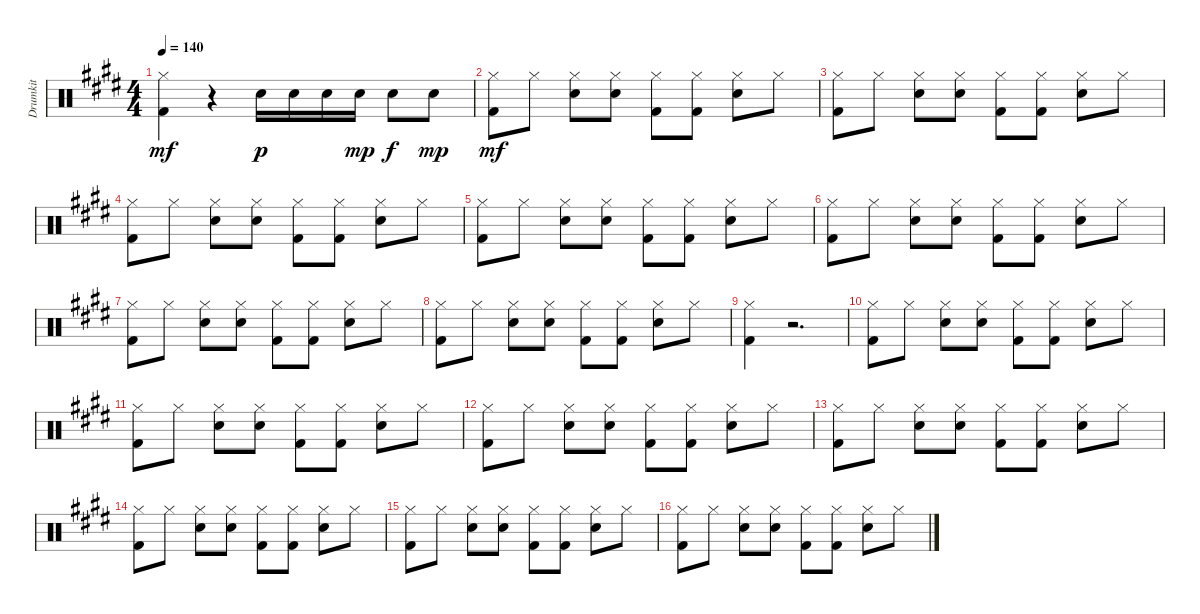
\track ("Drumkit" "Drumkit") {instrument percussion}
\staff {score}
\articulation defaults
\ts (4 4)
\tempo 140
\clef neutral
\ks e
("Hi-Hat (closed)" "Kick (hit) 2").4{dy mf} r.4 "Snare (hit) 2".16{dy p} "Snare (hit) 2".16 "Snare (hit) 2".16 "Snare (hit) 2".16{dy mp} "Snare (hit) 2".8{dy f} "Snare (hit) 2".8{dy mp} |
("Hi-Hat (closed)" "Kick (hit) 2").8{dy mf} "Hi-Hat (closed)".8 ("Hi-Hat (closed)" "Snare (hit) 2").8 ("Hi-Hat (closed)" "Snare (hit) 2").8 ("Hi-Hat (closed)" "Kick (hit) 2").8 ("Hi-Hat (closed)" "Kick (hit) 2").8 ("Hi-Hat (closed)" "Snare (hit) 2").8 "Hi-Hat (closed)".8 |
("Hi-Hat (closed)" "Kick (hit) 2").8 "Hi-Hat (closed)".8 ("Hi-Hat (closed)" "Snare (hit) 2").8 ("Hi-Hat (closed)" "Snare (hit) 2").8 ("Hi-Hat (closed)" "Kick (hit) 2").8 ("Hi-Hat (closed)" "Kick (hit) 2").8 ("Hi-Hat (closed)" "Snare (hit) 2").8 "Hi-Hat (closed)".8 |
("Hi-Hat (closed)" "Kick (hit) 2").8 "Hi-Hat (closed)".8 ("Hi-Hat (closed)" "Snare (hit) 2").8 ("Hi-Hat (closed)" "Snare (hit) 2").8 ("Hi-Hat (closed)" "Kick (hit) 2").8 ("Hi-Hat (closed)" "Kick (hit) 2").8 ("Hi-Hat (closed)" "Snare (hit) 2").8 "Hi-Hat (closed)".8 |
("Hi-Hat (closed)" "Kick (hit) 2").8 "Hi-Hat (closed)".8 ("Hi-Hat (closed)" "Snare (hit) 2").8 ("Hi-Hat (closed)" "Snare (hit) 2").8 ("Hi-Hat (closed)" "Kick (hit) 2").8 ("Hi-Hat (closed)" "Kick (hit) 2").8 ("Hi-Hat (closed)" "Snare (hit) 2").8 "Hi-Hat (closed)".8 |
("Hi-Hat (closed)" "Kick (hit) 2").8 "Hi-Hat (closed)".8 ("Hi-Hat (closed)" "Snare (hit) 2").8 ("Hi-Hat (closed)" "Snare (hit) 2").8 ("Hi-Hat (closed)" "Kick (hit) 2").8 ("Hi-Hat (closed)" "Kick (hit) 2").8 ("Hi-Hat (closed)" "Snare (hit) 2").8 "Hi-Hat (closed)".8 |
("Hi-Hat (closed)" "Kick (hit) 2").8 "Hi-Hat (closed)".8 ("Hi-Hat (closed)" "Snare (hit) 2").8 ("Hi-Hat (closed)" "Snare (hit) 2").8 ("Hi-Hat (closed)" "Kick (hit) 2").8 ("Hi-Hat (closed)" "Kick (hit) 2").8 ("Hi-Hat (closed)" "Snare (hit) 2").8 "Hi-Hat (closed)".8 |
("Hi-Hat (closed)" "Kick (hit) 2").8 "Hi-Hat (closed)".8 ("Hi-Hat (closed)" "Snare (hit) 2").8 ("Hi-Hat (closed)" "Snare (hit) 2").8 ("Hi-Hat (closed)" "Kick (hit) 2").8 ("Hi-Hat (closed)" "Kick (hit) 2").8 ("Hi-Hat (closed)" "Snare (hit) 2").8 "Hi-Hat (closed)".8 |
("Hi-Hat (closed)" "Kick (hit) 2").4 r.2{d} |
("Hi-Hat (closed)" "Kick (hit) 2").8 "Hi-Hat (closed)".8 ("Hi-Hat (closed)" "Snare (hit) 2").8 ("Hi-Hat (closed)" "Snare (hit) 2").8 ("Hi-Hat (closed)" "Kick (hit) 2").8 ("Hi-Hat (closed)" "Kick (hit) 2").8 ("Hi-Hat (closed)" "Snare (hit) 2").8 "Hi-Hat (closed)".8 |
("Hi-Hat (closed)" "Kick (hit) 2").8 "Hi-Hat (closed)".8 ("Hi-Hat (closed)" "Snare (hit) 2").8 ("Hi-Hat (closed)" "Snare (hit) 2").8 ("Hi-Hat (closed)" "Kick (hit) 2").8 ("Hi-Hat (closed)" "Kick (hit) 2").8 ("Hi-Hat (closed)" "Snare (hit) 2").8 "Hi-Hat (closed)".8 |
("Hi-Hat (closed)" "Kick (hit) 2").8 "Hi-Hat (closed)".8 ("Hi-Hat (closed)" "Snare (hit) 2").8 ("Hi-Hat (closed)" "Snare (hit) 2").8 ("Hi-Hat (closed)" "Kick (hit) 2").8 ("Hi-Hat (closed)" "Kick (hit) 2").8 ("Hi-Hat (closed)" "Snare (hit) 2").8 "Hi-Hat (closed)".8 |
("Hi-Hat (closed)" "Kick (hit) 2").8 "Hi-Hat (closed)".8 ("Hi-Hat (closed)" "Snare (hit) 2").8 ("Hi-Hat (closed)" "Snare (hit) 2").8 ("Hi-Hat (closed)" "Kick (hit) 2").8 ("Hi-Hat (closed)" "Kick (hit) 2").8 ("Hi-Hat (closed)" "Snare (hit) 2").8 "Hi-Hat (closed)".8 |
("Hi-Hat (closed)" "Kick (hit) 2").8 "Hi-Hat (closed)".8 ("Hi-Hat (closed)" "Snare (hit) 2").8 ("Hi-Hat (closed)" "Snare (hit) 2").8 ("Hi-Hat (closed)" "Kick (hit) 2").8 ("Hi-Hat (closed)" "Kick (hit) 2").8 ("Hi-Hat (closed)" "Snare (hit) 2").8 "Hi-Hat (closed)".8 |
("Hi-Hat (closed)" "Kick (hit) 2").8 "Hi-Hat (closed)".8 ("Hi-Hat (closed)" "Snare (hit) 2").8 ("Hi-Hat (closed)" "Snare (hit) 2").8 ("Hi-Hat (closed)" "Kick (hit) 2").8 ("Hi-Hat (closed)" "Kick (hit) 2").8 ("Hi-Hat (closed)" "Snare (hit) 2").8 "Hi-Hat (closed)".8 |
("Hi-Hat (closed)" "Kick (hit) 2").8 "Hi-Hat (closed)".8 ("Hi-Hat (closed)" "Snare (hit) 2").8 ("Hi-Hat (closed)" "Snare (hit) 2").8 ("Hi-Hat (closed)" "Kick (hit) 2").8 ("Hi-Hat (closed)" "Kick (hit) 2").8 ("Hi-Hat (closed)" "Snare (hit) 2").8 "Hi-Hat (closed)".8
